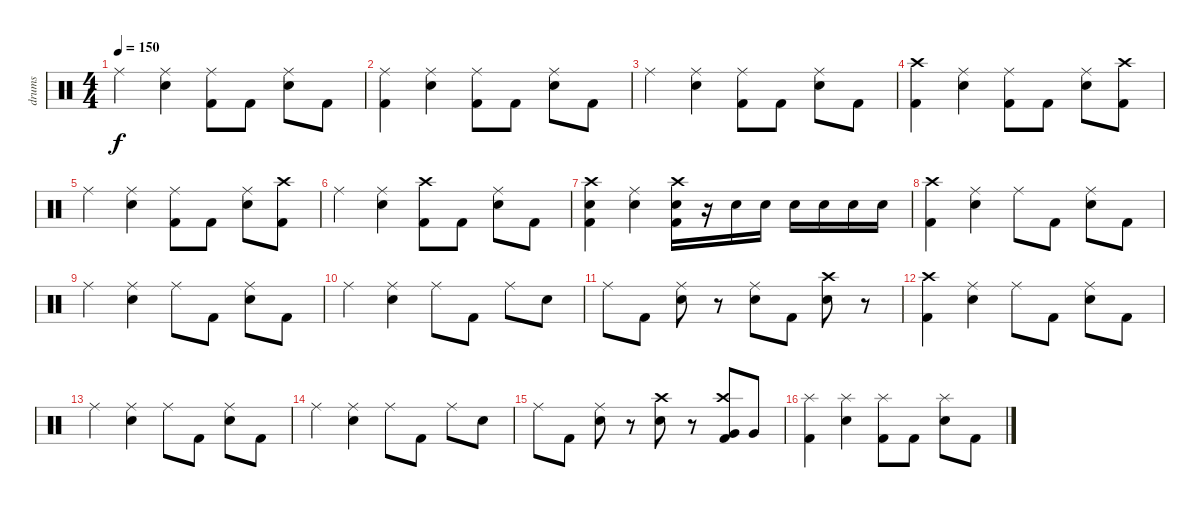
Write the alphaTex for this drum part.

\track ("drums" "drums") {instrument percussion}
\staff {score}
\articulation defaults
\ts (4 4)
\tempo 150
\clef neutral
\ks c "Ride (middle)".4{dy f}
("Ride (middle)" "Snare (hit) 2").4 ("Ride (middle)" "Kick (hit) 2").8 "Kick (hit) 2".8 ("Ride (middle)" "Snare (hit) 2").8 "Kick (hit) 2".8 |
("Ride (middle)" "Kick (hit) 2").4 ("Ride (middle)" "Snare (hit) 2").4 ("Ride (middle)" "Kick (hit) 2").8 "Kick (hit) 2".8 ("Ride (middle)" "Snare (hit) 2").8 "Kick (hit) 2".8 |
"Ride (middle)".4 ("Ride (middle)" "Snare (hit) 2").4 ("Ride (middle)" "Kick (hit) 2").8 "Kick (hit) 2".8 ("Ride (middle)" "Snare (hit) 2").8 "Kick (hit) 2".8 |
("Crash high (hit)" "Kick (hit) 2").4 ("Ride (middle)" "Snare (hit) 2").4 ("Ride (middle)" "Kick (hit) 2").8 "Kick (hit) 2".8 ("Ride (middle)" "Snare (hit) 2").8 ("Crash high (hit)" "Kick (hit) 2").8 |
"Ride (middle)".4 ("Ride (middle)" "Snare (hit) 2").4 ("Ride (middle)" "Kick (hit) 2").8 "Kick (hit) 2".8 ("Ride (middle)" "Snare (hit) 2").8 ("Crash high (hit)" "Kick (hit) 2").8 |
"Ride (middle)".4 ("Ride (middle)" "Snare (hit) 2").4 ("Crash high (hit)" "Kick (hit) 2").8 "Kick (hit) 2".8 ("Ride (middle)" "Snare (hit) 2").8 "Kick (hit) 2".8 |
("Crash high (hit)" "Snare (hit) 2" "Kick (hit) 2").4 ("Ride (middle)" "Snare (hit) 2").4 ("Crash high (hit)" "Snare (hit) 2" "Kick (hit) 2").16 r.16 "Snare (hit) 2".16 "Snare (hit) 2".16 "Snare (hit) 2".16 "Snare (hit) 2".16 "Snare (hit) 2".16 "Snare (hit) 2".16 |
("Crash high (hit)" "Kick (hit) 2").4 ("Ride (middle)" "Snare (hit) 2").4 "Ride (middle)".8 "Kick (hit) 2".8 ("Ride (middle)" "Snare (hit) 2").8 "Kick (hit) 2".8 |
"Ride (middle)".4 ("Ride (middle)" "Snare (hit) 2").4 "Ride (middle)".8 "Kick (hit) 2".8 ("Ride (middle)" "Snare (hit) 2").8 "Kick (hit) 2".8 |
"Ride (middle)".4 ("Ride (middle)" "Snare (hit) 2").4 "Ride (middle)".8 "Kick (hit) 2".8 "Ride (middle)".8 "Snare (hit) 2".8 |
"Ride (middle)".8 "Kick (hit) 2".8 ("Ride (middle)" "Snare (hit) 2").8 r.8 ("Ride (middle)" "Snare (hit) 2").8 "Kick (hit) 2".8 ("Crash high (hit)" "Snare (hit) 2").8 r.8 |
("Crash high (hit)" "Kick (hit) 2").4 ("Ride (middle)" "Snare (hit) 2").4 "Ride (middle)".8 "Kick (hit) 2".8 ("Ride (middle)" "Snare (hit) 2").8 "Kick (hit) 2".8 |
"Ride (middle)".4 ("Ride (middle)" "Snare (hit) 2").4 "Ride (middle)".8 "Kick (hit) 2".8 ("Ride (middle)" "Snare (hit) 2").8 "Kick (hit) 2".8 |
"Ride (middle)".4 ("Ride (middle)" "Snare (hit) 2").4 "Ride (middle)".8 "Kick (hit) 2".8 "Ride (middle)".8 "Snare (hit) 2".8 |
"Ride (middle)".8 "Kick (hit) 2".8 ("Ride (middle)" "Snare (hit) 2").8 r.8 ("Crash high (hit)" "Snare (hit) 2").8 r.8 ("Crash high (hit)" "Very Low Tom (hit)" "Kick (hit) 2").8 "Very Low Tom (hit)".8 |
("Splash (hit)" "Kick (hit) 2").4 ("Splash (hit)" "Snare (hit) 2").4 ("Splash (hit)" "Kick (hit) 2").8 "Kick (hit) 2".8 ("Splash (hit)" "Snare (hit) 2").8 "Kick (hit) 2".8
